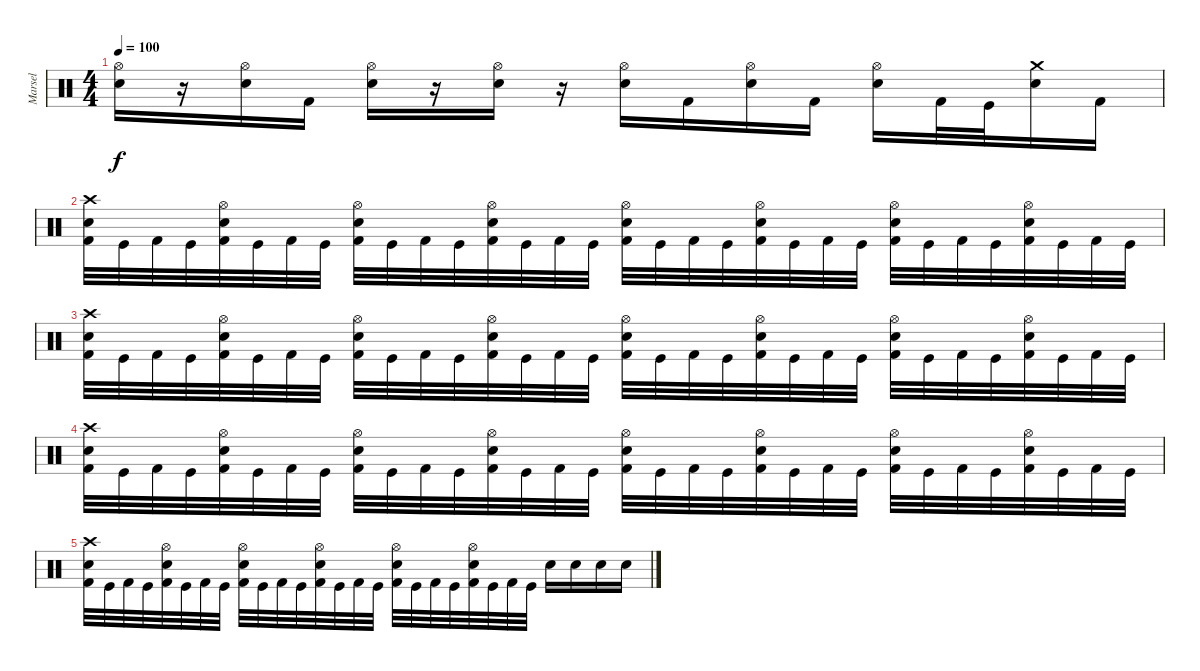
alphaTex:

\track ("Marsel" "Marsel") {instrument percussion}
\staff {score}
\articulation defaults
\ts (4 4)
\tempo 100
\clef neutral
\ks c
("Hi-Hat (open)" "Snare (hit) 2").16{dy f} r.16 ("Hi-Hat (open)" "Snare (hit) 2").16 "Kick (hit) 2".16 ("Hi-Hat (open)" "Snare (hit) 2").16 r.16 ("Hi-Hat (open)" "Snare (hit) 2").16 r.16 ("Hi-Hat (open)" "Snare (hit) 2").16 "Kick (hit) 2".16 ("Hi-Hat (open)" "Snare (hit) 2").16 "Kick (hit) 2".16 ("Hi-Hat (open)" "Snare (hit) 2").16 "Kick (hit) 2".32 "Kick (hit)".32 ("Crash medium (hit)" "Snare (hit) 2").16 "Kick (hit) 2".16 |
("Crash high (hit)" "Snare (hit) 2" "Kick (hit) 2").32 "Kick (hit)".32 "Kick (hit) 2".32 "Kick (hit)".32 ("Hi-Hat (open)" "Snare (hit) 2" "Kick (hit) 2").32 "Kick (hit)".32 "Kick (hit) 2".32 "Kick (hit)".32 ("Hi-Hat (open)" "Snare (hit) 2" "Kick (hit) 2").32 "Kick (hit)".32 "Kick (hit) 2".32 "Kick (hit)".32 ("Hi-Hat (open)" "Snare (hit) 2" "Kick (hit) 2").32 "Kick (hit)".32 "Kick (hit) 2".32 "Kick (hit)".32 ("Hi-Hat (open)" "Snare (hit) 2" "Kick (hit) 2").32 "Kick (hit)".32 "Kick (hit) 2".32 "Kick (hit)".32 ("Hi-Hat (open)" "Snare (hit) 2" "Kick (hit) 2").32 "Kick (hit)".32 "Kick (hit) 2".32 "Kick (hit)".32 ("Hi-Hat (open)" "Snare (hit) 2" "Kick (hit) 2").32 "Kick (hit)".32 "Kick (hit) 2".32 "Kick (hit)".32 ("Hi-Hat (open)" "Snare (hit) 2" "Kick (hit) 2").32 "Kick (hit)".32 "Kick (hit) 2".32 "Kick (hit)".32 |
("Crash high (hit)" "Snare (hit) 2" "Kick (hit) 2").32 "Kick (hit)".32 "Kick (hit) 2".32 "Kick (hit)".32 ("Hi-Hat (open)" "Snare (hit) 2" "Kick (hit) 2").32 "Kick (hit)".32 "Kick (hit) 2".32 "Kick (hit)".32 ("Hi-Hat (open)" "Snare (hit) 2" "Kick (hit) 2").32 "Kick (hit)".32 "Kick (hit) 2".32 "Kick (hit)".32 ("Hi-Hat (open)" "Snare (hit) 2" "Kick (hit) 2").32 "Kick (hit)".32 "Kick (hit) 2".32 "Kick (hit)".32 ("Hi-Hat (open)" "Snare (hit) 2" "Kick (hit) 2").32 "Kick (hit)".32 "Kick (hit) 2".32 "Kick (hit)".32 ("Hi-Hat (open)" "Snare (hit) 2" "Kick (hit) 2").32 "Kick (hit)".32 "Kick (hit) 2".32 "Kick (hit)".32 ("Hi-Hat (open)" "Snare (hit) 2" "Kick (hit) 2").32 "Kick (hit)".32 "Kick (hit) 2".32 "Kick (hit)".32 ("Hi-Hat (open)" "Snare (hit) 2" "Kick (hit) 2").32 "Kick (hit)".32 "Kick (hit) 2".32 "Kick (hit)".32 |
("Crash high (hit)" "Snare (hit) 2" "Kick (hit) 2").32 "Kick (hit)".32 "Kick (hit) 2".32 "Kick (hit)".32 ("Hi-Hat (open)" "Snare (hit) 2" "Kick (hit) 2").32 "Kick (hit)".32 "Kick (hit) 2".32 "Kick (hit)".32 ("Hi-Hat (open)" "Snare (hit) 2" "Kick (hit) 2").32 "Kick (hit)".32 "Kick (hit) 2".32 "Kick (hit)".32 ("Hi-Hat (open)" "Snare (hit) 2" "Kick (hit) 2").32 "Kick (hit)".32 "Kick (hit) 2".32 "Kick (hit)".32 ("Hi-Hat (open)" "Snare (hit) 2" "Kick (hit) 2").32 "Kick (hit)".32 "Kick (hit) 2".32 "Kick (hit)".32 ("Hi-Hat (open)" "Snare (hit) 2" "Kick (hit) 2").32 "Kick (hit)".32 "Kick (hit) 2".32 "Kick (hit)".32 ("Hi-Hat (open)" "Snare (hit) 2" "Kick (hit) 2").32 "Kick (hit)".32 "Kick (hit) 2".32 "Kick (hit)".32 ("Hi-Hat (open)" "Snare (hit) 2" "Kick (hit) 2").32 "Kick (hit)".32 "Kick (hit) 2".32 "Kick (hit)".32 |
("Crash high (hit)" "Snare (hit) 2" "Kick (hit) 2").32 "Kick (hit)".32 "Kick (hit) 2".32 "Kick (hit)".32 ("Hi-Hat (open)" "Snare (hit) 2" "Kick (hit) 2").32 "Kick (hit)".32 "Kick (hit) 2".32 "Kick (hit)".32 ("Hi-Hat (open)" "Snare (hit) 2" "Kick (hit) 2").32 "Kick (hit)".32 "Kick (hit) 2".32 "Kick (hit)".32 ("Hi-Hat (open)" "Snare (hit) 2" "Kick (hit) 2").32 "Kick (hit)".32 "Kick (hit) 2".32 "Kick (hit)".32 ("Hi-Hat (open)" "Snare (hit) 2" "Kick (hit) 2").32 "Kick (hit)".32 "Kick (hit) 2".32 "Kick (hit)".32 ("Hi-Hat (open)" "Snare (hit) 2" "Kick (hit) 2").32 "Kick (hit)".32 "Kick (hit) 2".32 "Kick (hit)".32 "Snare (hit) 2".16 "Snare (hit) 2".16 "Snare (hit) 2".16 "Snare (hit) 2".16
